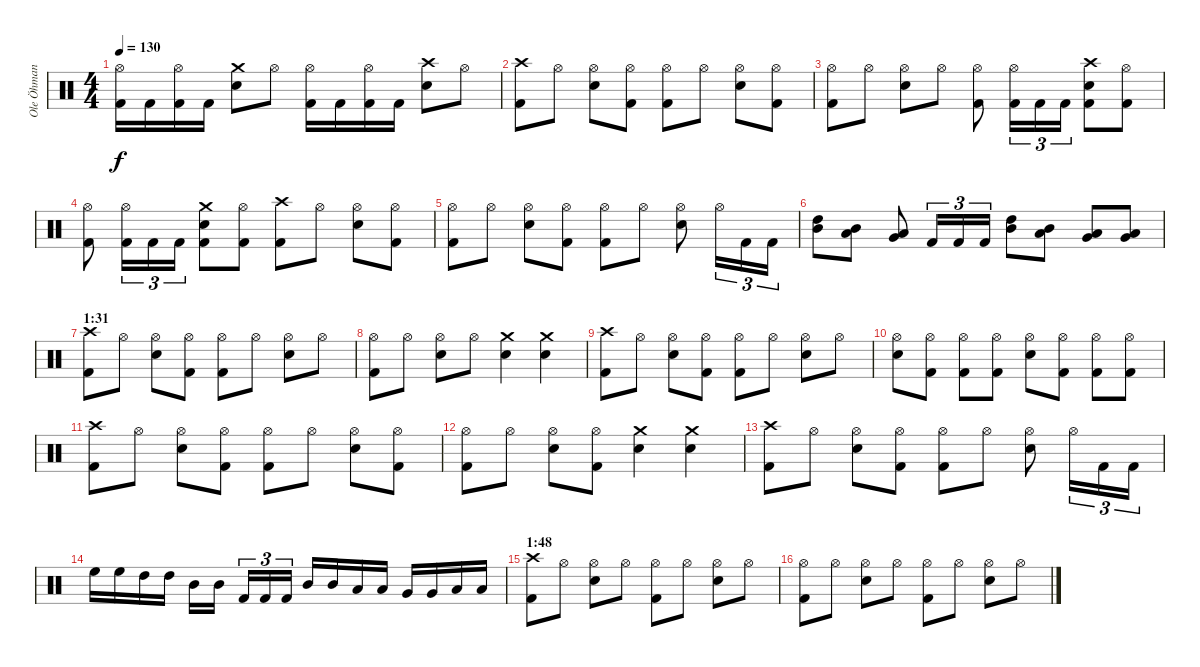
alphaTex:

\track ("Ole Öhman" "Ole Öhman") {instrument percussion}
\staff {score}
\articulation defaults
\ts (4 4)
\tempo 130
\clef neutral
\ks c
("Hi-Hat (open)" "Kick (hit) 2").16{dy f} "Kick (hit) 2".16 ("Hi-Hat (open)" "Kick (hit) 2").16 "Kick (hit) 2".16 ("Crash medium (hit)" "Electric Snare (hit)").8 "Hi-Hat (open)".8 ("Hi-Hat (open)" "Kick (hit) 2").16 "Kick (hit) 2".16 ("Hi-Hat (open)" "Kick (hit) 2").16 "Kick (hit) 2".16 ("Crash high (hit)" "Electric Snare (hit)").8 "Hi-Hat (open)".8 |
("Crash high (hit)" "Kick (hit) 2").8 "Hi-Hat (open)".8 ("Hi-Hat (open)" "Electric Snare (hit)").8 ("Hi-Hat (open)" "Kick (hit) 2").8 ("Hi-Hat (open)" "Kick (hit) 2").8 "Hi-Hat (open)".8 ("Hi-Hat (open)" "Electric Snare (hit)").8 ("Hi-Hat (open)" "Kick (hit) 2").8 |
("Hi-Hat (open)" "Kick (hit) 2").8 "Hi-Hat (open)".8 ("Hi-Hat (open)" "Electric Snare (hit)").8 "Hi-Hat (open)".8 ("Hi-Hat (open)" "Kick (hit) 2").8 ("Hi-Hat (open)" "Kick (hit) 2").16{tu (3 2)} "Kick (hit) 2".16{tu (3 2)} "Kick (hit) 2".16{tu (3 2)} ("Crash high (hit)" "Electric Snare (hit)" "Kick (hit) 2").8 ("Hi-Hat (open)" "Kick (hit) 2").8 |
("Hi-Hat (open)" "Kick (hit) 2").8 ("Hi-Hat (open)" "Kick (hit) 2").16{tu (3 2)} "Kick (hit) 2".16{tu (3 2)} "Kick (hit) 2".16{tu (3 2)} ("Crash medium (hit)" "Electric Snare (hit)" "Kick (hit) 2").8 ("Hi-Hat (open)" "Kick (hit) 2").8 ("Crash high (hit)" "Kick (hit) 2").8 "Hi-Hat (open)".8 ("Hi-Hat (open)" "Electric Snare (hit)").8 ("Hi-Hat (open)" "Kick (hit) 2").8 |
("Hi-Hat (open)" "Kick (hit) 2").8 "Hi-Hat (open)".8 ("Hi-Hat (open)" "Electric Snare (hit)").8 ("Hi-Hat (open)" "Kick (hit) 2").8 ("Hi-Hat (open)" "Kick (hit) 2").8 "Hi-Hat (open)".8 ("Hi-Hat (open)" "Electric Snare (hit)").8 "Hi-Hat (open)".16{tu (3 2)} "Kick (hit) 2".16{tu (3 2)} "Kick (hit) 2".16{tu (3 2)} |
("High Tom (hit)" "Mid Tom (hit)").8 ("Mid Tom (hit)" "Low Tom (hit)").8 ("Low Tom (hit)" "Very Low Tom (hit)").8 "Kick (hit) 2".16{tu (3 2)} "Kick (hit) 2".16{tu (3 2)} "Kick (hit) 2".16{tu (3 2)} ("Mid Tom (hit)" "High Tom (hit)").8 ("Low Tom (hit)" "Mid Tom (hit)").8 ("Very Low Tom (hit)" "Low Tom (hit)").8 ("Low Floor Tom (hit)" "Very Low Tom (hit)").8 |
\section ("" "1:31")
("Crash high (hit)" "Kick (hit) 2").8 "Hi-Hat (open)".8 ("Hi-Hat (open)" "Electric Snare (hit)").8 ("Hi-Hat (open)" "Kick (hit) 2").8 ("Hi-Hat (open)" "Kick (hit) 2").8 "Hi-Hat (open)".8 ("Hi-Hat (open)" "Electric Snare (hit)").8 "Hi-Hat (open)".8 |
("Hi-Hat (open)" "Kick (hit) 2").8 "Hi-Hat (open)".8 ("Hi-Hat (open)" "Electric Snare (hit)").8 "Hi-Hat (open)".8 ("Crash medium (hit)" "Electric Snare (hit)").4 ("Crash medium (hit)" "Electric Snare (hit)").4 |
("Crash high (hit)" "Kick (hit) 2").8 "Hi-Hat (open)".8 ("Hi-Hat (open)" "Electric Snare (hit)").8 ("Hi-Hat (open)" "Kick (hit) 2").8 ("Hi-Hat (open)" "Kick (hit) 2").8 "Hi-Hat (open)".8 ("Hi-Hat (open)" "Electric Snare (hit)").8 "Hi-Hat (open)".8 |
("Hi-Hat (open)" "Electric Snare (hit)").8 ("Hi-Hat (open)" "Kick (hit) 2").8 ("Hi-Hat (open)" "Kick (hit) 2").8 ("Hi-Hat (open)" "Kick (hit) 2").8 ("Hi-Hat (open)" "Electric Snare (hit)").8 ("Hi-Hat (open)" "Kick (hit) 2").8 ("Hi-Hat (open)" "Kick (hit) 2").8 ("Hi-Hat (open)" "Kick (hit) 2").8 |
("Crash high (hit)" "Kick (hit) 2").8 "Hi-Hat (open)".8 ("Hi-Hat (open)" "Electric Snare (hit)").8 ("Hi-Hat (open)" "Kick (hit) 2").8 ("Hi-Hat (open)" "Kick (hit) 2").8 "Hi-Hat (open)".8 ("Hi-Hat (open)" "Electric Snare (hit)").8 ("Hi-Hat (open)" "Kick (hit) 2").8 |
("Hi-Hat (open)" "Kick (hit) 2").8 "Hi-Hat (open)".8 ("Hi-Hat (open)" "Electric Snare (hit)").8 ("Hi-Hat (open)" "Kick (hit) 2").8 ("Crash medium (hit)" "Electric Snare (hit)").4 ("Crash medium (hit)" "Electric Snare (hit)").4 |
("Crash high (hit)" "Kick (hit) 2").8 "Hi-Hat (open)".8 ("Hi-Hat (open)" "Electric Snare (hit)").8 ("Hi-Hat (open)" "Kick (hit) 2").8 ("Hi-Hat (open)" "Kick (hit) 2").8 "Hi-Hat (open)".8 ("Hi-Hat (open)" "Electric Snare (hit)").8 "Hi-Hat (open)".16{tu (3 2)} "Kick (hit) 2".16{tu (3 2)} "Kick (hit) 2".16{tu (3 2)} |
"High Floor Tom (hit)".16 "High Floor Tom (hit)".16 "High Tom (hit)".16 "High Tom (hit)".16 "Mid Tom (hit)".16 "Mid Tom (hit)".16 "Kick (hit) 2".16{tu (3 2)} "Kick (hit) 2".16{tu (3 2)} "Kick (hit) 2".16{tu (3 2)} "Mid Tom (hit)".16 "Mid Tom (hit)".16 "Low Tom (hit)".16 "Low Tom (hit)".16 "Very Low Tom (hit)".16 "Very Low Tom (hit)".16 "Low Floor Tom (hit)".16 "Low Floor Tom (hit)".16 |
\section ("" "1:48")
("Crash high (hit)" "Kick (hit) 2").8 "Hi-Hat (open)".8 ("Hi-Hat (open)" "Electric Snare (hit)").8 "Hi-Hat (open)".8 ("Hi-Hat (open)" "Kick (hit) 2").8 "Hi-Hat (open)".8 ("Hi-Hat (open)" "Electric Snare (hit)").8 "Hi-Hat (open)".8 |
("Hi-Hat (open)" "Kick (hit) 2").8 "Hi-Hat (open)".8 ("Hi-Hat (open)" "Electric Snare (hit)").8 "Hi-Hat (open)".8 ("Hi-Hat (open)" "Kick (hit) 2").8 "Hi-Hat (open)".8 ("Hi-Hat (open)" "Electric Snare (hit)").8 "Hi-Hat (open)".8
